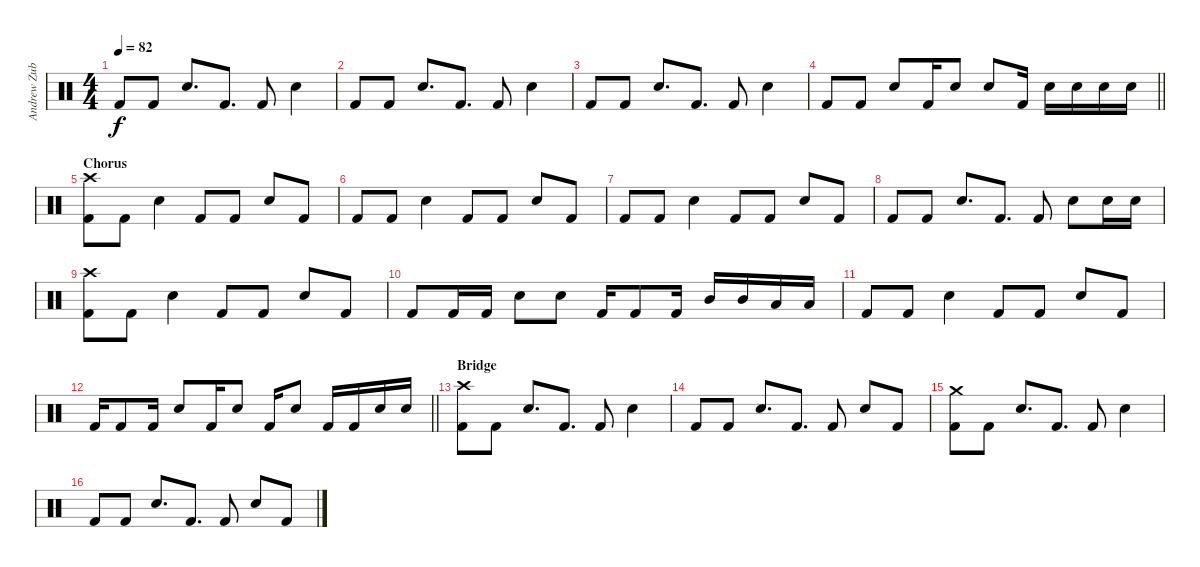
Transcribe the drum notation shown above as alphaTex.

\track ("Andrew Zubiszewski (Drums)" "Andrew Zub") {instrument percussion}
\staff {score}
\articulation defaults
\ts (4 4)
\tempo 82
\clef neutral
\ks c "Kick (hit) 2".8{dy f} "Kick (hit) 2".8 "Electric Snare (hit)".8{d} "Kick (hit) 2".8{d} "Kick (hit) 2".8 "Electric Snare (hit)".4
|
"Kick (hit) 2".8 "Kick (hit) 2".8 "Electric Snare (hit)".8{d} "Kick (hit) 2".8{d} "Kick (hit) 2".8 "Electric Snare (hit)".4 |
"Kick (hit) 2".8 "Kick (hit) 2".8 "Electric Snare (hit)".8{d} "Kick (hit) 2".8{d} "Kick (hit) 2".8 "Electric Snare (hit)".4 |
\barLineRight lightlight "Kick (hit) 2".8 "Kick (hit) 2".8 "Electric Snare (hit)".8 "Kick (hit) 2".16 "Electric Snare (hit)".8 "Electric Snare (hit)".8 "Kick (hit) 2".16 "Electric Snare (hit)".16 "Electric Snare (hit)".16 "Electric Snare (hit)".16 "Electric Snare (hit)".16
|
\section ("" "Chorus")
("Crash high (hit)" "Kick (hit) 2").8 "Kick (hit) 2".8 "Electric Snare (hit)".4 "Kick (hit) 2".8 "Kick (hit) 2".8 "Electric Snare (hit)".8 "Kick (hit) 2".8 |
"Kick (hit) 2".8 "Kick (hit) 2".8 "Electric Snare (hit)".4 "Kick (hit) 2".8 "Kick (hit) 2".8 "Electric Snare (hit)".8 "Kick (hit) 2".8 |
"Kick (hit) 2".8 "Kick (hit) 2".8 "Electric Snare (hit)".4 "Kick (hit) 2".8 "Kick (hit) 2".8 "Electric Snare (hit)".8 "Kick (hit) 2".8 |
"Kick (hit) 2".8 "Kick (hit) 2".8 "Electric Snare (hit)".8{d} "Kick (hit) 2".8{d} "Kick (hit) 2".8 "Electric Snare (hit)".8 "Electric Snare (hit)".16 "Electric Snare (hit)".16 |
("Crash high (hit)" "Kick (hit) 2").8 "Kick (hit) 2".8 "Electric Snare (hit)".4 "Kick (hit) 2".8 "Kick (hit) 2".8 "Electric Snare (hit)".8 "Kick (hit) 2".8 |
"Kick (hit) 2".8 "Kick (hit) 2".16 "Kick (hit) 2".16 "Electric Snare (hit)".8 "Electric Snare (hit)".8 "Kick (hit) 2".16 "Kick (hit) 2".8 "Kick (hit) 2".16 "Mid Tom (hit)".16 "Mid Tom (hit)".16 "Low Tom (hit)".16 "Low Tom (hit)".16 |
"Kick (hit) 2".8 "Kick (hit) 2".8 "Electric Snare (hit)".4 "Kick (hit) 2".8 "Kick (hit) 2".8 "Electric Snare (hit)".8 "Kick (hit) 2".8 |
\barLineRight lightlight "Kick (hit) 2".16 "Kick (hit) 2".8 "Kick (hit) 2".16 "Electric Snare (hit)".8 "Kick (hit) 2".16 "Electric Snare (hit)".8 "Kick (hit) 2".16 "Electric Snare (hit)".8 "Kick (hit) 2".16 "Kick (hit) 2".16 "Electric Snare (hit)".16 "Electric Snare (hit)".16
|
\section ("" "Bridge")
("Crash high (hit)" "Kick (hit) 2").8 "Kick (hit) 2".8 "Electric Snare (hit)".8{d} "Kick (hit) 2".8{d} "Kick (hit) 2".8 "Electric Snare (hit)".4 |
"Kick (hit) 2".8 "Kick (hit) 2".8 "Electric Snare (hit)".8{d} "Kick (hit) 2".8{d} "Kick (hit) 2".8 "Electric Snare (hit)".8 "Kick (hit) 2".8 |
("Crash medium (hit)" "Kick (hit) 2").8 "Kick (hit) 2".8 "Electric Snare (hit)".8{d} "Kick (hit) 2".8{d} "Kick (hit) 2".8 "Electric Snare (hit)".4 |
"Kick (hit) 2".8 "Kick (hit) 2".8 "Electric Snare (hit)".8{d} "Kick (hit) 2".8{d} "Kick (hit) 2".8 "Electric Snare (hit)".8 "Kick (hit) 2".8
